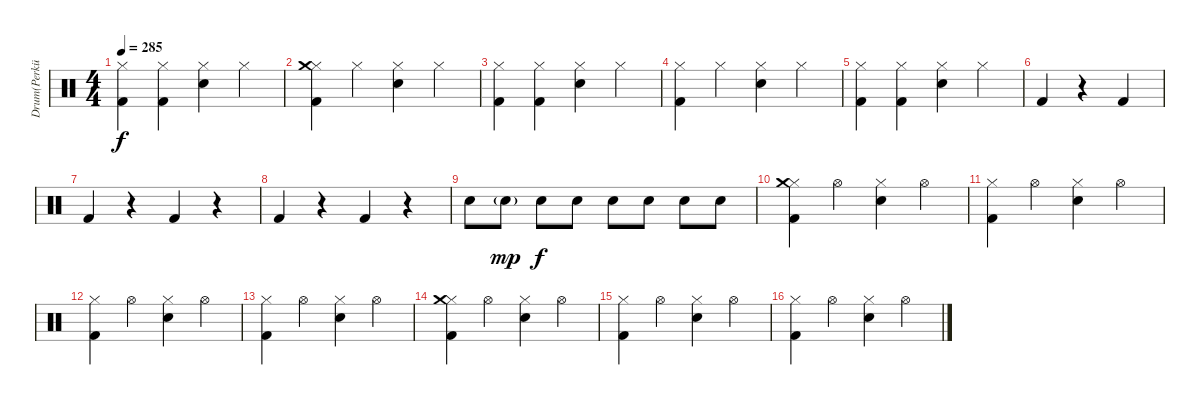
\track ("Drum(Perküsyon)" "Drum(Perkü") {instrument percussion}
\staff {score}
\articulation defaults
\ts (4 4)
\tempo 285
\clef neutral
\ks c
("Hi-Hat (closed)" "Kick (hit) 2").4{dy f} ("Hi-Hat (closed)" "Kick (hit) 2").4 ("Hi-Hat (closed)" "Electric Snare (hit)").4 "Hi-Hat (closed)".4 |
("Hi-Hat (closed)" "Kick (hit) 2" "Crash medium (hit)").4 "Hi-Hat (closed)".4 ("Hi-Hat (closed)" "Electric Snare (hit)").4 "Hi-Hat (closed)".4 |
("Hi-Hat (closed)" "Kick (hit) 2").4 ("Hi-Hat (closed)" "Kick (hit) 2").4 ("Hi-Hat (closed)" "Electric Snare (hit)").4 "Hi-Hat (closed)".4 |
("Hi-Hat (closed)" "Kick (hit) 2").4 "Hi-Hat (closed)".4 ("Hi-Hat (closed)" "Electric Snare (hit)").4 "Hi-Hat (closed)".4 |
("Hi-Hat (closed)" "Kick (hit) 2").4 ("Hi-Hat (closed)" "Kick (hit) 2").4 ("Hi-Hat (closed)" "Electric Snare (hit)").4 "Hi-Hat (closed)".4 |
"Kick (hit) 2".4 r.4 "Kick (hit) 2".4 |
"Kick (hit) 2".4 r.4 "Kick (hit) 2".4 r.4 |
"Kick (hit) 2".4 r.4 "Kick (hit) 2".4 r.4 |
"Electric Snare (hit)".8 "Electric Snare (hit)"{g}.8{dy mp} "Electric Snare (hit)".8{dy f} "Electric Snare (hit)".8 "Electric Snare (hit)".8 "Electric Snare (hit)".8 "Electric Snare (hit)".8 "Electric Snare (hit)".8 |
("Hi-Hat (closed)" "Kick (hit) 2" "Crash medium (hit)").4 "Hi-Hat (open)".4 ("Hi-Hat (closed)" "Electric Snare (hit)").4 "Hi-Hat (open)".4 |
("Hi-Hat (closed)" "Kick (hit) 2").4 "Hi-Hat (open)".4 ("Hi-Hat (closed)" "Electric Snare (hit)").4 "Hi-Hat (open)".4 |
("Hi-Hat (closed)" "Kick (hit) 2").4 "Hi-Hat (open)".4 ("Hi-Hat (closed)" "Electric Snare (hit)").4 "Hi-Hat (open)".4 |
("Hi-Hat (closed)" "Kick (hit) 2").4 "Hi-Hat (open)".4 ("Hi-Hat (closed)" "Electric Snare (hit)").4 "Hi-Hat (open)".4 |
("Hi-Hat (closed)" "Kick (hit) 2" "Crash medium (hit)").4 "Hi-Hat (open)".4 ("Hi-Hat (closed)" "Electric Snare (hit)").4 "Hi-Hat (open)".4 |
("Hi-Hat (closed)" "Kick (hit) 2").4 "Hi-Hat (open)".4 ("Hi-Hat (closed)" "Electric Snare (hit)").4 "Hi-Hat (open)".4 |
("Hi-Hat (closed)" "Kick (hit) 2").4 "Hi-Hat (open)".4 ("Hi-Hat (closed)" "Electric Snare (hit)").4 "Hi-Hat (open)".4
